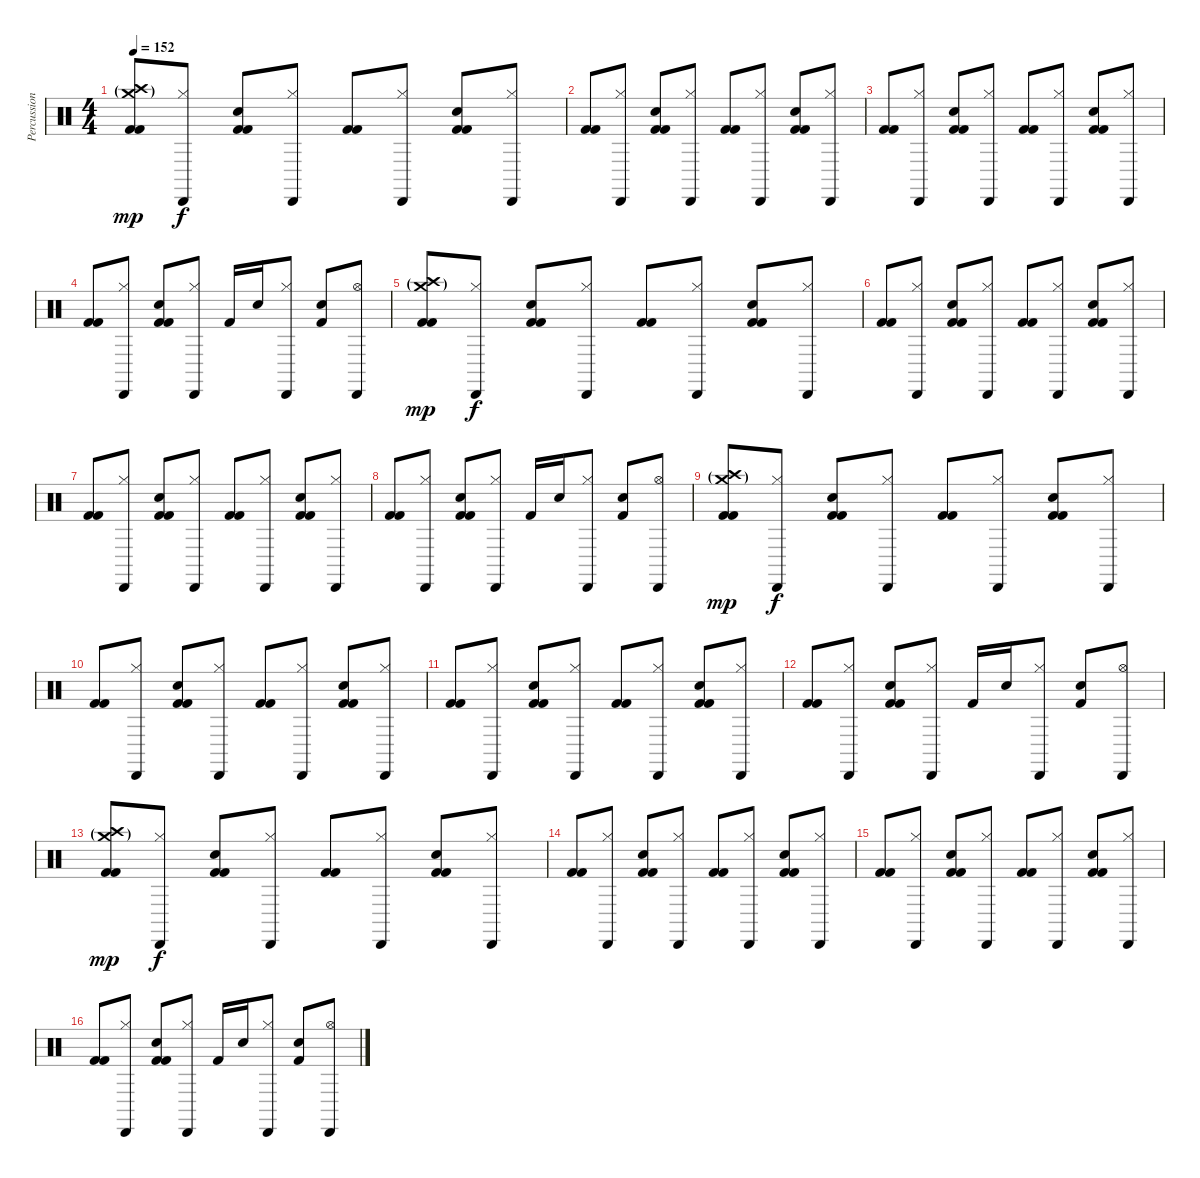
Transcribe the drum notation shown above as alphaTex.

\track ("Percussion" "Percussion") {instrument percussion}
\staff {score}
\articulation defaults
\ts (4 4)
\tempo 152
\clef neutral
\ks c
("Crash high (hit)"{g} "Crash medium (hit)"{g} "Kick (hit) 2" "Kick (hit) 2").8{dy mp} ("Hi-Hat (closed)" "Cabasa (hit)").8{dy f} ("Snare (hit) 2" "Kick (hit) 2" "Kick (hit) 2").8 ("Hi-Hat (closed)" "Cabasa (hit)").8 ("Kick (hit) 2" "Kick (hit) 2").8 ("Hi-Hat (closed)" "Cabasa (hit)").8 ("Snare (hit) 2" "Kick (hit) 2" "Kick (hit) 2").8 ("Hi-Hat (closed)" "Cabasa (hit)").8 |
("Kick (hit) 2" "Kick (hit) 2").8 ("Hi-Hat (closed)" "Cabasa (hit)").8 ("Snare (hit) 2" "Kick (hit) 2" "Kick (hit) 2").8 ("Hi-Hat (closed)" "Cabasa (hit)").8 ("Kick (hit) 2" "Kick (hit) 2").8 ("Hi-Hat (closed)" "Cabasa (hit)").8 ("Snare (hit) 2" "Kick (hit) 2" "Kick (hit) 2").8 ("Hi-Hat (closed)" "Cabasa (hit)").8 |
("Kick (hit) 2" "Kick (hit) 2").8 ("Hi-Hat (closed)" "Cabasa (hit)").8 ("Snare (hit) 2" "Kick (hit) 2" "Kick (hit) 2").8 ("Hi-Hat (closed)" "Cabasa (hit)").8 ("Kick (hit) 2" "Kick (hit) 2").8 ("Hi-Hat (closed)" "Cabasa (hit)").8 ("Snare (hit) 2" "Kick (hit) 2" "Kick (hit) 2").8 ("Hi-Hat (closed)" "Cabasa (hit)").8 |
("Kick (hit) 2" "Kick (hit) 2").8 ("Hi-Hat (closed)" "Cabasa (hit)").8 ("Snare (hit) 2" "Kick (hit) 2" "Kick (hit) 2").8 ("Hi-Hat (closed)" "Cabasa (hit)").8 "Kick (hit) 2".16 "Snare (hit) 2".16 ("Hi-Hat (closed)" "Cabasa (hit)").8 ("Snare (hit) 2" "Kick (hit) 2").8 ("Hi-Hat (open)" "Cabasa (hit)").8 |
("Crash high (hit)"{g} "Crash medium (hit)"{g} "Kick (hit) 2" "Kick (hit) 2").8{dy mp} ("Hi-Hat (closed)" "Cabasa (hit)").8{dy f} ("Snare (hit) 2" "Kick (hit) 2" "Kick (hit) 2").8 ("Hi-Hat (closed)" "Cabasa (hit)").8 ("Kick (hit) 2" "Kick (hit) 2").8 ("Hi-Hat (closed)" "Cabasa (hit)").8 ("Snare (hit) 2" "Kick (hit) 2" "Kick (hit) 2").8 ("Hi-Hat (closed)" "Cabasa (hit)").8 |
("Kick (hit) 2" "Kick (hit) 2").8 ("Hi-Hat (closed)" "Cabasa (hit)").8 ("Snare (hit) 2" "Kick (hit) 2" "Kick (hit) 2").8 ("Hi-Hat (closed)" "Cabasa (hit)").8 ("Kick (hit) 2" "Kick (hit) 2").8 ("Hi-Hat (closed)" "Cabasa (hit)").8 ("Snare (hit) 2" "Kick (hit) 2" "Kick (hit) 2").8 ("Hi-Hat (closed)" "Cabasa (hit)").8 |
("Kick (hit) 2" "Kick (hit) 2").8 ("Hi-Hat (closed)" "Cabasa (hit)").8 ("Snare (hit) 2" "Kick (hit) 2" "Kick (hit) 2").8 ("Hi-Hat (closed)" "Cabasa (hit)").8 ("Kick (hit) 2" "Kick (hit) 2").8 ("Hi-Hat (closed)" "Cabasa (hit)").8 ("Snare (hit) 2" "Kick (hit) 2" "Kick (hit) 2").8 ("Hi-Hat (closed)" "Cabasa (hit)").8 |
("Kick (hit) 2" "Kick (hit) 2").8 ("Hi-Hat (closed)" "Cabasa (hit)").8 ("Snare (hit) 2" "Kick (hit) 2" "Kick (hit) 2").8 ("Hi-Hat (closed)" "Cabasa (hit)").8 "Kick (hit) 2".16 "Snare (hit) 2".16 ("Hi-Hat (closed)" "Cabasa (hit)").8 ("Snare (hit) 2" "Kick (hit) 2").8 ("Hi-Hat (open)" "Cabasa (hit)").8 |
("Crash high (hit)"{g} "Crash medium (hit)"{g} "Kick (hit) 2" "Kick (hit) 2").8{dy mp} ("Hi-Hat (closed)" "Cabasa (hit)").8{dy f} ("Snare (hit) 2" "Kick (hit) 2" "Kick (hit) 2").8 ("Hi-Hat (closed)" "Cabasa (hit)").8 ("Kick (hit) 2" "Kick (hit) 2").8 ("Hi-Hat (closed)" "Cabasa (hit)").8 ("Snare (hit) 2" "Kick (hit) 2" "Kick (hit) 2").8 ("Hi-Hat (closed)" "Cabasa (hit)").8 |
("Kick (hit) 2" "Kick (hit) 2").8 ("Hi-Hat (closed)" "Cabasa (hit)").8 ("Snare (hit) 2" "Kick (hit) 2" "Kick (hit) 2").8 ("Hi-Hat (closed)" "Cabasa (hit)").8 ("Kick (hit) 2" "Kick (hit) 2").8 ("Hi-Hat (closed)" "Cabasa (hit)").8 ("Snare (hit) 2" "Kick (hit) 2" "Kick (hit) 2").8 ("Hi-Hat (closed)" "Cabasa (hit)").8 |
("Kick (hit) 2" "Kick (hit) 2").8 ("Hi-Hat (closed)" "Cabasa (hit)").8 ("Snare (hit) 2" "Kick (hit) 2" "Kick (hit) 2").8 ("Hi-Hat (closed)" "Cabasa (hit)").8 ("Kick (hit) 2" "Kick (hit) 2").8 ("Hi-Hat (closed)" "Cabasa (hit)").8 ("Snare (hit) 2" "Kick (hit) 2" "Kick (hit) 2").8 ("Hi-Hat (closed)" "Cabasa (hit)").8 |
("Kick (hit) 2" "Kick (hit) 2").8 ("Hi-Hat (closed)" "Cabasa (hit)").8 ("Snare (hit) 2" "Kick (hit) 2" "Kick (hit) 2").8 ("Hi-Hat (closed)" "Cabasa (hit)").8 "Kick (hit) 2".16 "Snare (hit) 2".16 ("Hi-Hat (closed)" "Cabasa (hit)").8 ("Snare (hit) 2" "Kick (hit) 2").8 ("Hi-Hat (open)" "Cabasa (hit)").8 |
("Crash high (hit)"{g} "Crash medium (hit)"{g} "Kick (hit) 2" "Kick (hit) 2").8{dy mp} ("Hi-Hat (closed)" "Cabasa (hit)").8{dy f} ("Snare (hit) 2" "Kick (hit) 2" "Kick (hit) 2").8 ("Hi-Hat (closed)" "Cabasa (hit)").8 ("Kick (hit) 2" "Kick (hit) 2").8 ("Hi-Hat (closed)" "Cabasa (hit)").8 ("Snare (hit) 2" "Kick (hit) 2" "Kick (hit) 2").8 ("Hi-Hat (closed)" "Cabasa (hit)").8 |
("Kick (hit) 2" "Kick (hit) 2").8 ("Hi-Hat (closed)" "Cabasa (hit)").8 ("Snare (hit) 2" "Kick (hit) 2" "Kick (hit) 2").8 ("Hi-Hat (closed)" "Cabasa (hit)").8 ("Kick (hit) 2" "Kick (hit) 2").8 ("Hi-Hat (closed)" "Cabasa (hit)").8 ("Snare (hit) 2" "Kick (hit) 2" "Kick (hit) 2").8 ("Hi-Hat (closed)" "Cabasa (hit)").8 |
("Kick (hit) 2" "Kick (hit) 2").8 ("Hi-Hat (closed)" "Cabasa (hit)").8 ("Snare (hit) 2" "Kick (hit) 2" "Kick (hit) 2").8 ("Hi-Hat (closed)" "Cabasa (hit)").8 ("Kick (hit) 2" "Kick (hit) 2").8 ("Hi-Hat (closed)" "Cabasa (hit)").8 ("Snare (hit) 2" "Kick (hit) 2" "Kick (hit) 2").8 ("Hi-Hat (closed)" "Cabasa (hit)").8 |
("Kick (hit) 2" "Kick (hit) 2").8 ("Hi-Hat (closed)" "Cabasa (hit)").8 ("Snare (hit) 2" "Kick (hit) 2" "Kick (hit) 2").8 ("Hi-Hat (closed)" "Cabasa (hit)").8 "Kick (hit) 2".16 "Snare (hit) 2".16 ("Hi-Hat (closed)" "Cabasa (hit)").8 ("Snare (hit) 2" "Kick (hit) 2").8 ("Hi-Hat (open)" "Cabasa (hit)").8
